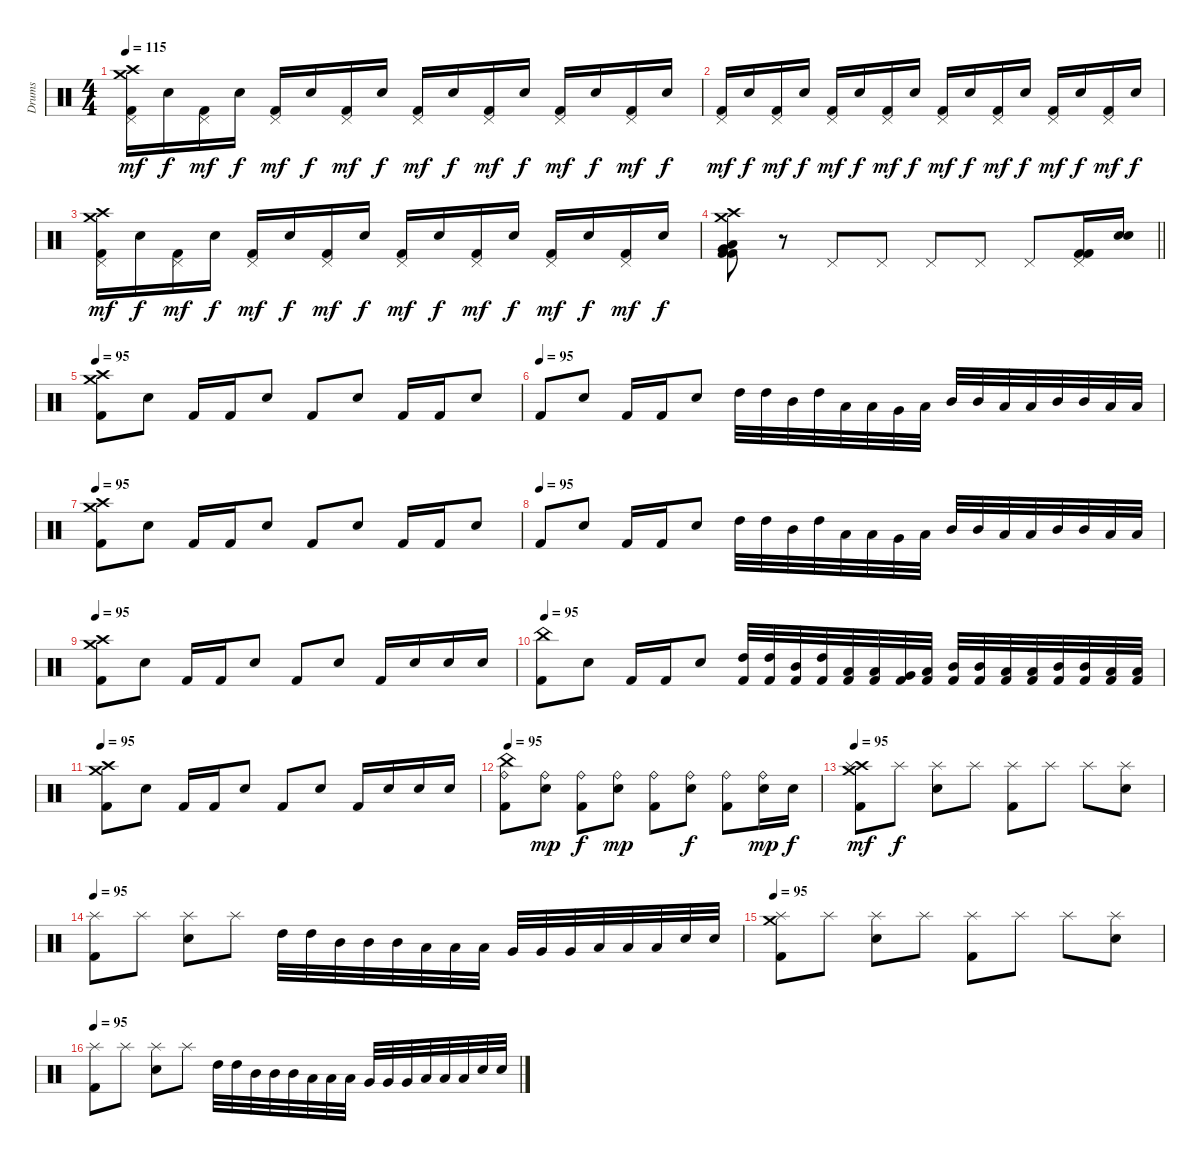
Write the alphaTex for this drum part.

\track ("Drums" "Drums") {instrument percussion}
\staff {score}
\articulation defaults
\ts (4 4)
\tempo 115
\clef neutral
\ks c
("Crash high (hit)" "Crash medium (hit)" "Pedal Hi-Hat (hit)" "Kick (hit) 2").16{dy mf} "Snare (hit) 2".16{dy f} ("Pedal Hi-Hat (hit)" "Kick (hit) 2").16{dy mf} "Snare (hit) 2".16{dy f} ("Pedal Hi-Hat (hit)" "Kick (hit) 2").16{dy mf} "Snare (hit) 2".16{dy f} ("Pedal Hi-Hat (hit)" "Kick (hit) 2").16{dy mf} "Snare (hit) 2".16{dy f} ("Pedal Hi-Hat (hit)" "Kick (hit) 2").16{dy mf} "Snare (hit) 2".16{dy f} ("Pedal Hi-Hat (hit)" "Kick (hit) 2").16{dy mf} "Snare (hit) 2".16{dy f} ("Pedal Hi-Hat (hit)" "Kick (hit) 2").16{dy mf} "Snare (hit) 2".16{dy f} ("Pedal Hi-Hat (hit)" "Kick (hit) 2").16{dy mf} "Snare (hit) 2".16{dy f} |
("Pedal Hi-Hat (hit)" "Kick (hit) 2").16{dy mf} "Snare (hit) 2".16{dy f} ("Pedal Hi-Hat (hit)" "Kick (hit) 2").16{dy mf} "Snare (hit) 2".16{dy f} ("Pedal Hi-Hat (hit)" "Kick (hit) 2").16{dy mf} "Snare (hit) 2".16{dy f} ("Pedal Hi-Hat (hit)" "Kick (hit) 2").16{dy mf} "Snare (hit) 2".16{dy f} ("Pedal Hi-Hat (hit)" "Kick (hit) 2").16{dy mf} "Snare (hit) 2".16{dy f} ("Pedal Hi-Hat (hit)" "Kick (hit) 2").16{dy mf} "Snare (hit) 2".16{dy f} ("Pedal Hi-Hat (hit)" "Kick (hit) 2").16{dy mf} "Snare (hit) 2".16{dy f} ("Pedal Hi-Hat (hit)" "Kick (hit) 2").16{dy mf} "Snare (hit) 2".16{dy f} |
("Crash high (hit)" "Crash medium (hit)" "Pedal Hi-Hat (hit)" "Kick (hit) 2").16{dy mf} "Snare (hit) 2".16{dy f} ("Pedal Hi-Hat (hit)" "Kick (hit) 2").16{dy mf} "Snare (hit) 2".16{dy f} ("Pedal Hi-Hat (hit)" "Kick (hit) 2").16{dy mf} "Snare (hit) 2".16{dy f} ("Pedal Hi-Hat (hit)" "Kick (hit) 2").16{dy mf} "Snare (hit) 2".16{dy f} ("Pedal Hi-Hat (hit)" "Kick (hit) 2").16{dy mf} "Snare (hit) 2".16{dy f} ("Pedal Hi-Hat (hit)" "Kick (hit) 2").16{dy mf} "Snare (hit) 2".16{dy f} ("Pedal Hi-Hat (hit)" "Kick (hit) 2").16{dy mf} "Snare (hit) 2".16{dy f} ("Pedal Hi-Hat (hit)" "Kick (hit) 2").16{dy mf} "Snare (hit) 2".16{dy f} |
\barLineRight lightlight
("Crash medium (hit)" "Crash high (hit)" "Very Low Tom (hit)" "Low Floor Tom (hit)" "Kick (hit) 2" "Kick (hit) 2").8 r.8 "Pedal Hi-Hat (hit)".8 "Pedal Hi-Hat (hit)".8 "Pedal Hi-Hat (hit)".8 "Pedal Hi-Hat (hit)".8 "Pedal Hi-Hat (hit)".8 ("Pedal Hi-Hat (hit)" "Kick (hit) 2" "Kick (hit) 2").16 ("Snare (hit) 2" "Snare (hit) 2").16 |
\tempo 95
("Crash high (hit)" "Crash medium (hit)" "Kick (hit) 2").8{volume 13} "Snare (hit) 2".8 "Kick (hit) 2".16 "Kick (hit) 2".16 "Snare (hit) 2".8 "Kick (hit) 2".8 "Snare (hit) 2".8 "Kick (hit) 2".16 "Kick (hit) 2".16 "Snare (hit) 2".8 |
\tempo (95)
"Kick (hit) 2".8{volume 13} "Snare (hit) 2".8 "Kick (hit) 2".16 "Kick (hit) 2".16 "Snare (hit) 2".8 "High Tom (hit)".32 "High Tom (hit)".32 "Mid Tom (hit)".32 "High Tom (hit)".32 "Low Tom (hit)".32 "Low Tom (hit)".32 "Very Low Tom (hit)".32 "Low Floor Tom (hit)".32 "Mid Tom (hit)".32 "Mid Tom (hit)".32 "Low Tom (hit)".32 "Low Tom (hit)".32 "Mid Tom (hit)".32 "Mid Tom (hit)".32 "Low Tom (hit)".32 "Low Tom (hit)".32 |
\tempo 95
("Crash high (hit)" "Crash medium (hit)" "Kick (hit) 2").8{volume 13} "Snare (hit) 2".8 "Kick (hit) 2".16 "Kick (hit) 2".16 "Snare (hit) 2".8 "Kick (hit) 2".8 "Snare (hit) 2".8 "Kick (hit) 2".16 "Kick (hit) 2".16 "Snare (hit) 2".8 |
\tempo (95)
"Kick (hit) 2".8{volume 13} "Snare (hit) 2".8 "Kick (hit) 2".16 "Kick (hit) 2".16 "Snare (hit) 2".8 "High Tom (hit)".32 "High Tom (hit)".32 "Mid Tom (hit)".32 "High Tom (hit)".32 "Low Tom (hit)".32 "Low Tom (hit)".32 "Very Low Tom (hit)".32 "Low Floor Tom (hit)".32 "Mid Tom (hit)".32 "Mid Tom (hit)".32 "Low Tom (hit)".32 "Low Tom (hit)".32 "Mid Tom (hit)".32 "Mid Tom (hit)".32 "Low Tom (hit)".32 "Low Tom (hit)".32 |
\tempo 95
("Crash high (hit)" "Crash medium (hit)" "Kick (hit) 2").8{volume 13} "Snare (hit) 2".8 "Kick (hit) 2".16 "Kick (hit) 2".16 "Snare (hit) 2".8 "Kick (hit) 2".8 "Snare (hit) 2".8 "Kick (hit) 2".16 "Snare (hit) 2".16 "Snare (hit) 2".16 "Snare (hit) 2".16 |
\tempo 95
("China (hit)" "Kick (hit) 2").8{volume 13} "Snare (hit) 2".8 "Kick (hit) 2".16 "Kick (hit) 2".16 "Snare (hit) 2".8 ("Kick (hit) 2" "High Tom (hit)").32 ("Kick (hit) 2" "High Tom (hit)").32 ("Kick (hit) 2" "Mid Tom (hit)").32 ("Kick (hit) 2" "High Tom (hit)").32 ("Kick (hit) 2" "Low Tom (hit)").32 ("Kick (hit) 2" "Low Tom (hit)").32 ("Kick (hit) 2" "Very Low Tom (hit)").32 ("Kick (hit) 2" "Low Floor Tom (hit)").32 ("Kick (hit) 2" "Mid Tom (hit)").32 ("Kick (hit) 2" "Mid Tom (hit)").32 ("Kick (hit) 2" "Low Tom (hit)").32 ("Kick (hit) 2" "Low Tom (hit)").32 ("Kick (hit) 2" "Mid Tom (hit)").32 ("Kick (hit) 2" "Mid Tom (hit)").32 ("Kick (hit) 2" "Low Tom (hit)").32 ("Kick (hit) 2" "Low Tom (hit)").32 |
\tempo 95
("Crash high (hit)" "Crash medium (hit)" "Kick (hit) 2").8{volume 13} "Snare (hit) 2".8 "Kick (hit) 2".16 "Kick (hit) 2".16 "Snare (hit) 2".8 "Kick (hit) 2".8 "Snare (hit) 2".8 "Kick (hit) 2".16 "Snare (hit) 2".16 "Snare (hit) 2".16 "Snare (hit) 2".16 |
\tempo 95
("China (hit)" "Ride (bell)" "Kick (hit) 2").8{volume 13} ("Ride (bell)" "Snare (hit) 2").8{dy mp} ("Ride (bell)" "Kick (hit) 2").8{dy f} ("Ride (bell)" "Snare (hit) 2").8{dy mp} ("Ride (bell)" "Kick (hit) 2").8 ("Ride (bell)" "Snare (hit) 2").8{dy f} ("Ride (bell)" "Kick (hit) 2").8 ("Ride (bell)" "Snare (hit) 2").16{dy mp} "Snare (hit) 2".16{dy f} |
\tempo 95
("Crash medium (hit)" "Crash high (hit)" "Splash (hit)" "Kick (hit) 2").8{dy mf} "Splash (hit)".8{dy f} ("Splash (hit)" "Snare (hit) 2").8 "Splash (hit)".8 ("Splash (hit)" "Kick (hit) 2").8 "Splash (hit)".8 "Splash (hit)".8 ("Splash (hit)" "Snare (hit) 2").8 |
\tempo 95
("Splash (hit)" "Kick (hit) 2").8 "Splash (hit)".8 ("Splash (hit)" "Snare (hit) 2").8 "Splash (hit)".8 "High Tom (hit)".32 "High Tom (hit)".32 "Mid Tom (hit)".32 "Mid Tom (hit)".32 "Mid Tom (hit)".32 "Low Tom (hit)".32 "Low Tom (hit)".32 "Low Tom (hit)".32 "Very Low Tom (hit)".32 "Very Low Tom (hit)".32 "Very Low Tom (hit)".32 "Low Floor Tom (hit)".32 "Low Floor Tom (hit)".32 "Low Floor Tom (hit)".32 "Snare (hit) 2".32 "Snare (hit) 2".32 |
\tempo 95
("Crash medium (hit)" "Splash (hit)" "Kick (hit) 2").8 "Splash (hit)".8 ("Splash (hit)" "Snare (hit) 2").8 "Splash (hit)".8 ("Splash (hit)" "Kick (hit) 2").8 "Splash (hit)".8 "Splash (hit)".8 ("Splash (hit)" "Snare (hit) 2").8 |
\tempo 95
("Splash (hit)" "Kick (hit) 2").8 "Splash (hit)".8 ("Splash (hit)" "Snare (hit) 2").8 "Splash (hit)".8 "High Tom (hit)".32 "High Tom (hit)".32 "Mid Tom (hit)".32 "Mid Tom (hit)".32 "Mid Tom (hit)".32 "Low Tom (hit)".32 "Low Tom (hit)".32 "Low Tom (hit)".32 "Very Low Tom (hit)".32 "Very Low Tom (hit)".32 "Very Low Tom (hit)".32 "Low Floor Tom (hit)".32 "Low Floor Tom (hit)".32 "Low Floor Tom (hit)".32 "Snare (hit) 2".32 "Snare (hit) 2".32
